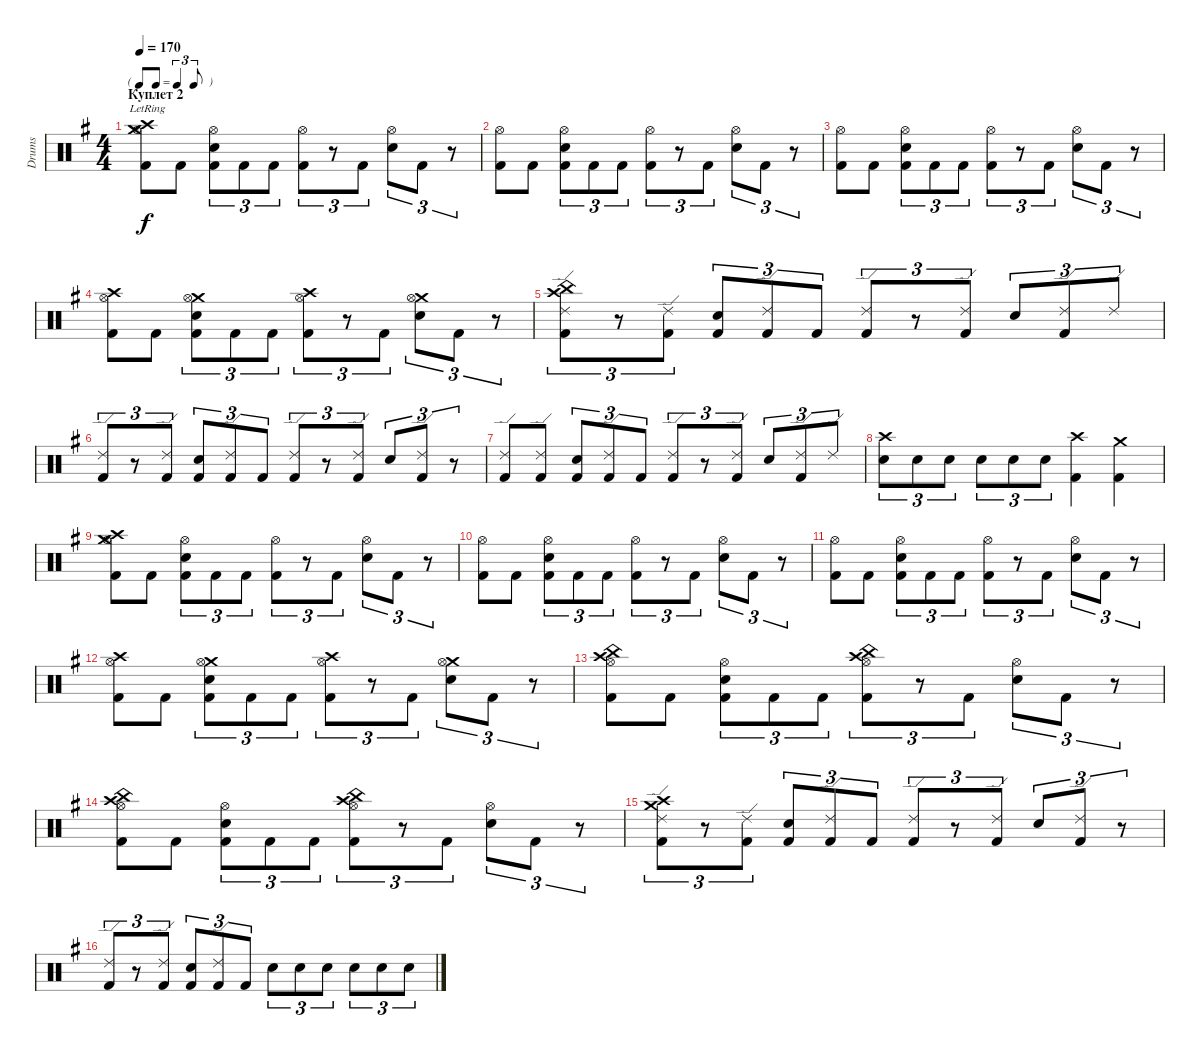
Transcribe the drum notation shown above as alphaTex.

\track ("Drums" "Drums") {instrument percussion}
\staff {score}
\articulation defaults
\ts (4 4)
\tf triplet8th
\section ("" "Куплет 2")
\tempo 170
\clef neutral
\ks eminor
("Crash high (hit)"{lr} "Crash medium (hit)"{lr} "Hi-Hat (open)" "Kick (hit) 2").8{dy f} "Kick (hit) 2".8 ("Electric Snare (hit)" "Hi-Hat (open)" "Kick (hit) 2").8{tu (3 2)} "Kick (hit) 2".8{tu (3 2)} "Kick (hit) 2".8{tu (3 2)} ("Hi-Hat (open)" "Kick (hit) 2").8{tu (3 2)} r.8{tu (3 2)} "Kick (hit) 2".8{tu (3 2)} ("Electric Snare (hit)" "Hi-Hat (open)").8{tu (3 2)} "Kick (hit) 2".8{tu (3 2)} r.8{tu (3 2)} |
("Hi-Hat (open)" "Kick (hit) 2").8 "Kick (hit) 2".8 ("Electric Snare (hit)" "Hi-Hat (open)" "Kick (hit) 2").8{tu (3 2)} "Kick (hit) 2".8{tu (3 2)} "Kick (hit) 2".8{tu (3 2)} ("Hi-Hat (open)" "Kick (hit) 2").8{tu (3 2)} r.8{tu (3 2)} "Kick (hit) 2".8{tu (3 2)} ("Electric Snare (hit)" "Hi-Hat (open)").8{tu (3 2)} "Kick (hit) 2".8{tu (3 2)} r.8{tu (3 2)} |
("Hi-Hat (open)" "Kick (hit) 2").8 "Kick (hit) 2".8 ("Electric Snare (hit)" "Hi-Hat (open)" "Kick (hit) 2").8{tu (3 2)} "Kick (hit) 2".8{tu (3 2)} "Kick (hit) 2".8{tu (3 2)} ("Hi-Hat (open)" "Kick (hit) 2").8{tu (3 2)} r.8{tu (3 2)} "Kick (hit) 2".8{tu (3 2)} ("Electric Snare (hit)" "Hi-Hat (open)").8{tu (3 2)} "Kick (hit) 2".8{tu (3 2)} r.8{tu (3 2)} |
("Crash high (hit)" "Hi-Hat (open)" "Kick (hit) 2").8 "Kick (hit) 2".8 ("Crash medium (hit)" "Electric Snare (hit)" "Hi-Hat (open)" "Kick (hit) 2").8{tu (3 2)} "Kick (hit) 2".8{tu (3 2)} "Kick (hit) 2".8{tu (3 2)} ("Crash high (hit)" "Hi-Hat (open)" "Kick (hit) 2").8{tu (3 2)} r.8{tu (3 2)} "Kick (hit) 2".8{tu (3 2)} ("Crash medium (hit)" "Electric Snare (hit)" "Hi-Hat (open)").8{tu (3 2)} "Kick (hit) 2".8{tu (3 2)} r.8{tu (3 2)} |
("China (hit)" "Crash high (hit)" "Ride (edge) 2" "Kick (hit) 2").8{tu (3 2)} r.8{tu (3 2)} ("Ride (edge) 2" "Kick (hit) 2").8{tu (3 2)} ("Electric Snare (hit)" "Kick (hit) 2").8{tu (3 2)} ("Ride (edge) 2" "Kick (hit) 2").8{tu (3 2)} "Kick (hit) 2".8{tu (3 2)} ("Ride (edge) 2" "Kick (hit) 2").8{tu (3 2)} r.8{tu (3 2)} ("Ride (edge) 2" "Kick (hit) 2").8{tu (3 2)} "Electric Snare (hit)".8{tu (3 2)} ("Ride (edge) 2" "Kick (hit) 2").8{tu (3 2)} "Ride (edge) 2".8{tu (3 2)} |
("Ride (edge) 2" "Kick (hit) 2").8{tu (3 2)} r.8{tu (3 2)} ("Ride (edge) 2" "Kick (hit) 2").8{tu (3 2)} ("Electric Snare (hit)" "Kick (hit) 2").8{tu (3 2)} ("Ride (edge) 2" "Kick (hit) 2").8{tu (3 2)} "Kick (hit) 2".8{tu (3 2)} ("Ride (edge) 2" "Kick (hit) 2").8{tu (3 2)} r.8{tu (3 2)} ("Ride (edge) 2" "Kick (hit) 2").8{tu (3 2)} "Electric Snare (hit)".8{tu (3 2)} ("Ride (edge) 2" "Kick (hit) 2").8{tu (3 2)} r.8{tu (3 2)} |
("Ride (edge) 2" "Kick (hit) 2").8 ("Ride (edge) 2" "Kick (hit) 2").8 ("Electric Snare (hit)" "Kick (hit) 2").8{tu (3 2)} ("Ride (edge) 2" "Kick (hit) 2").8{tu (3 2)} "Kick (hit) 2".8{tu (3 2)} ("Ride (edge) 2" "Kick (hit) 2").8{tu (3 2)} r.8{tu (3 2)} ("Ride (edge) 2" "Kick (hit) 2").8{tu (3 2)} "Electric Snare (hit)".8{tu (3 2)} ("Ride (edge) 2" "Kick (hit) 2").8{tu (3 2)} "Ride (edge) 2".8{tu (3 2)} |
("Crash high (hit)" "Electric Snare (hit)").8{tu (3 2)} "Electric Snare (hit)".8{tu (3 2)} "Electric Snare (hit)".8{tu (3 2)} "Electric Snare (hit)".8{tu (3 2)} "Electric Snare (hit)".8{tu (3 2)} "Electric Snare (hit)".8{tu (3 2)} ("Crash high (hit)" "Kick (hit) 2").4 ("Crash medium (hit)" "Kick (hit) 2").4 |
("Crash high (hit)" "Crash medium (hit)" "Hi-Hat (open)" "Kick (hit) 2").8 "Kick (hit) 2".8 ("Electric Snare (hit)" "Hi-Hat (open)" "Kick (hit) 2").8{tu (3 2)} "Kick (hit) 2".8{tu (3 2)} "Kick (hit) 2".8{tu (3 2)} ("Hi-Hat (open)" "Kick (hit) 2").8{tu (3 2)} r.8{tu (3 2)} "Kick (hit) 2".8{tu (3 2)} ("Electric Snare (hit)" "Hi-Hat (open)").8{tu (3 2)} "Kick (hit) 2".8{tu (3 2)} r.8{tu (3 2)} |
("Hi-Hat (open)" "Kick (hit) 2").8 "Kick (hit) 2".8 ("Electric Snare (hit)" "Hi-Hat (open)" "Kick (hit) 2").8{tu (3 2)} "Kick (hit) 2".8{tu (3 2)} "Kick (hit) 2".8{tu (3 2)} ("Hi-Hat (open)" "Kick (hit) 2").8{tu (3 2)} r.8{tu (3 2)} "Kick (hit) 2".8{tu (3 2)} ("Electric Snare (hit)" "Hi-Hat (open)").8{tu (3 2)} "Kick (hit) 2".8{tu (3 2)} r.8{tu (3 2)} |
("Hi-Hat (open)" "Kick (hit) 2").8 "Kick (hit) 2".8 ("Electric Snare (hit)" "Hi-Hat (open)" "Kick (hit) 2").8{tu (3 2)} "Kick (hit) 2".8{tu (3 2)} "Kick (hit) 2".8{tu (3 2)} ("Hi-Hat (open)" "Kick (hit) 2").8{tu (3 2)} r.8{tu (3 2)} "Kick (hit) 2".8{tu (3 2)} ("Electric Snare (hit)" "Hi-Hat (open)").8{tu (3 2)} "Kick (hit) 2".8{tu (3 2)} r.8{tu (3 2)} |
("Crash high (hit)" "Hi-Hat (open)" "Kick (hit) 2").8 "Kick (hit) 2".8 ("Crash medium (hit)" "Electric Snare (hit)" "Hi-Hat (open)" "Kick (hit) 2").8{tu (3 2)} "Kick (hit) 2".8{tu (3 2)} "Kick (hit) 2".8{tu (3 2)} ("Crash high (hit)" "Hi-Hat (open)" "Kick (hit) 2").8{tu (3 2)} r.8{tu (3 2)} "Kick (hit) 2".8{tu (3 2)} ("Crash medium (hit)" "Electric Snare (hit)" "Hi-Hat (open)").8{tu (3 2)} "Kick (hit) 2".8{tu (3 2)} r.8{tu (3 2)} |
("Crash high (hit)" "China (hit)" "Hi-Hat (open)" "Kick (hit) 2").8 "Kick (hit) 2".8 ("Electric Snare (hit)" "Hi-Hat (open)" "Kick (hit) 2").8{tu (3 2)} "Kick (hit) 2".8{tu (3 2)} "Kick (hit) 2".8{tu (3 2)} ("Crash high (hit)" "China (hit)" "Hi-Hat (open)" "Kick (hit) 2").8{tu (3 2)} r.8{tu (3 2)} "Kick (hit) 2".8{tu (3 2)} ("Electric Snare (hit)" "Hi-Hat (open)").8{tu (3 2)} "Kick (hit) 2".8{tu (3 2)} r.8{tu (3 2)} |
("Crash high (hit)" "China (hit)" "Hi-Hat (open)" "Kick (hit) 2").8 "Kick (hit) 2".8 ("Electric Snare (hit)" "Hi-Hat (open)" "Kick (hit) 2").8{tu (3 2)} "Kick (hit) 2".8{tu (3 2)} "Kick (hit) 2".8{tu (3 2)} ("Crash high (hit)" "China (hit)" "Hi-Hat (open)" "Kick (hit) 2").8{tu (3 2)} r.8{tu (3 2)} "Kick (hit) 2".8{tu (3 2)} ("Electric Snare (hit)" "Hi-Hat (open)").8{tu (3 2)} "Kick (hit) 2".8{tu (3 2)} r.8{tu (3 2)} |
("Crash high (hit)" "Crash medium (hit)" "Ride (edge) 2" "Kick (hit) 2").8{tu (3 2)} r.8{tu (3 2)} ("Ride (edge) 2" "Kick (hit) 2").8{tu (3 2)} ("Electric Snare (hit)" "Kick (hit) 2").8{tu (3 2)} ("Ride (edge) 2" "Kick (hit) 2").8{tu (3 2)} "Kick (hit) 2".8{tu (3 2)} ("Ride (edge) 2" "Kick (hit) 2").8{tu (3 2)} r.8{tu (3 2)} ("Ride (edge) 2" "Kick (hit) 2").8{tu (3 2)} "Electric Snare (hit)".8{tu (3 2)} ("Ride (edge) 2" "Kick (hit) 2").8{tu (3 2)} r.8{tu (3 2)} |
("Ride (edge) 2" "Kick (hit) 2").8{tu (3 2)} r.8{tu (3 2)} ("Ride (edge) 2" "Kick (hit) 2").8{tu (3 2)} ("Electric Snare (hit)" "Kick (hit) 2").8{tu (3 2)} ("Ride (edge) 2" "Kick (hit) 2").8{tu (3 2)} "Kick (hit) 2".8{tu (3 2)} "Electric Snare (hit)".8{tu (3 2)} "Electric Snare (hit)".8{tu (3 2)} "Electric Snare (hit)".8{tu (3 2)} "Electric Snare (hit)".8{tu (3 2)} "Electric Snare (hit)".8{tu (3 2)} "Electric Snare (hit)".8{tu (3 2)}
